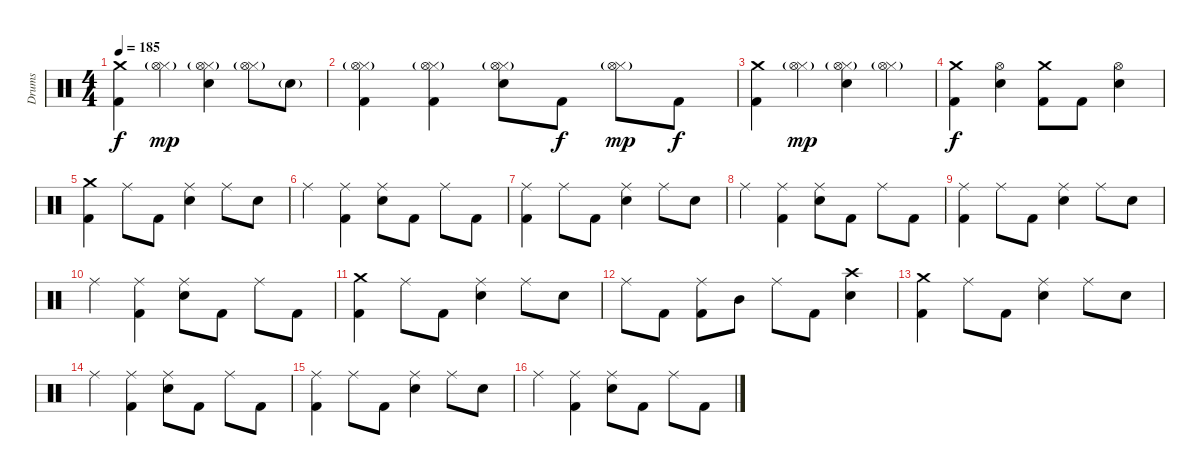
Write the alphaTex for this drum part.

\track ("Drums" "Drums") {instrument percussion}
\staff {score}
\articulation defaults
\ts (4 4)
\tempo 185
\clef neutral
\ks c
("Crash medium (hit)" "Kick (hit) 2").4{dy f} ("Hi-Hat (closed)" "Hi-Hat (open)"{g}).4{dy mp} ("Hi-Hat (closed)" "Hi-Hat (open)"{g} "Electric Snare (hit)").4 ("Hi-Hat (closed)" "Hi-Hat (open)"{g}).8 "Electric Snare (hit)"{g}.8 |
("Hi-Hat (closed)" "Hi-Hat (open)"{g} "Kick (hit) 2").4 ("Hi-Hat (closed)" "Hi-Hat (open)"{g} "Kick (hit) 2").4 ("Hi-Hat (closed)" "Hi-Hat (open)"{g} "Electric Snare (hit)").8 "Kick (hit) 2".8{dy f} ("Hi-Hat (closed)" "Hi-Hat (open)"{g}).8{dy mp} "Kick (hit) 2".8{dy f} |
("Crash medium (hit)" "Kick (hit) 2").4 ("Hi-Hat (closed)" "Hi-Hat (open)"{g}).4{dy mp} ("Hi-Hat (closed)" "Hi-Hat (open)"{g} "Electric Snare (hit)").4 ("Hi-Hat (closed)" "Hi-Hat (open)"{g}).4 |
("Crash medium (hit)" "Kick (hit) 2").4{dy f} ("Hi-Hat (open)" "Electric Snare (hit)").4 ("Crash medium (hit)" "Kick (hit) 2").8 "Kick (hit) 2".8 ("Hi-Hat (open)" "Electric Snare (hit)").4 |
("Crash medium (hit)" "Kick (hit) 2").4 "Ride (middle)".8 "Kick (hit) 2".8 ("Ride (middle)" "Electric Snare (hit)").4 "Ride (middle)".8 "Electric Snare (hit)".8 |
"Ride (middle)".4 ("Ride (middle)" "Kick (hit) 2").4 ("Ride (middle)" "Electric Snare (hit)").8 "Kick (hit) 2".8 "Ride (middle)".8 "Kick (hit) 2".8 |
("Ride (middle)" "Kick (hit) 2").4 "Ride (middle)".8 "Kick (hit) 2".8 ("Ride (middle)" "Electric Snare (hit)").4 "Ride (middle)".8 "Electric Snare (hit)".8 |
"Ride (middle)".4 ("Ride (middle)" "Kick (hit) 2").4 ("Ride (middle)" "Electric Snare (hit)").8 "Kick (hit) 2".8 "Ride (middle)".8 "Kick (hit) 2".8 |
("Ride (middle)" "Kick (hit) 2").4 "Ride (middle)".8 "Kick (hit) 2".8 ("Ride (middle)" "Electric Snare (hit)").4 "Ride (middle)".8 "Electric Snare (hit)".8 |
"Ride (middle)".4 ("Ride (middle)" "Kick (hit) 2").4 ("Ride (middle)" "Electric Snare (hit)").8 "Kick (hit) 2".8 "Ride (middle)".8 "Kick (hit) 2".8 |
("Crash medium (hit)" "Kick (hit) 2").4 "Ride (middle)".8 "Kick (hit) 2".8 ("Ride (middle)" "Electric Snare (hit)").4 "Ride (middle)".8 "Electric Snare (hit)".8 |
"Ride (middle)".8 "Kick (hit) 2".8 ("Ride (middle)" "Kick (hit) 2").8 "Mid Tom (hit)".8 "Ride (middle)".8 "Kick (hit) 2".8 ("Crash high (hit)" "Electric Snare (hit)").4 |
("Crash medium (hit)" "Kick (hit) 2").4 "Ride (middle)".8 "Kick (hit) 2".8 ("Ride (middle)" "Electric Snare (hit)").4 "Ride (middle)".8 "Electric Snare (hit)".8 |
"Ride (middle)".4 ("Ride (middle)" "Kick (hit) 2").4 ("Ride (middle)" "Electric Snare (hit)").8 "Kick (hit) 2".8 "Ride (middle)".8 "Kick (hit) 2".8 |
("Ride (middle)" "Kick (hit) 2").4 "Ride (middle)".8 "Kick (hit) 2".8 ("Ride (middle)" "Electric Snare (hit)").4 "Ride (middle)".8 "Electric Snare (hit)".8 |
"Ride (middle)".4 ("Ride (middle)" "Kick (hit) 2").4 ("Ride (middle)" "Electric Snare (hit)").8 "Kick (hit) 2".8 "Ride (middle)".8 "Kick (hit) 2".8
